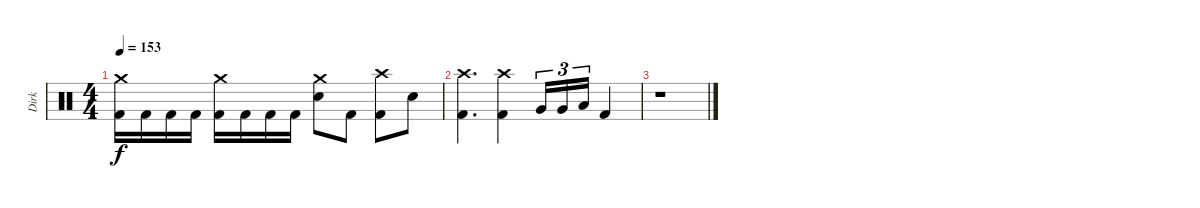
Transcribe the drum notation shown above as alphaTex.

\track ("Dirk" "Dirk") {instrument percussion}
\staff {score}
\articulation defaults
\ts (4 4)
\tempo 153
\clef neutral
\ks c
("Crash medium (hit)" "Kick (hit) 2").16{dy f} "Kick (hit) 2".16 "Kick (hit) 2".16 "Kick (hit) 2".16 ("Crash medium (hit)" "Kick (hit) 2").16 "Kick (hit) 2".16 "Kick (hit) 2".16 "Kick (hit) 2".16 ("Crash medium (hit)" "Electric Snare (hit)").8 "Kick (hit) 2".8 ("Crash high (hit)" "Kick (hit) 2").8 "Electric Snare (hit)".8 |
("Crash high (hit)" "Kick (hit) 2").4{d} ("Crash high (hit)" "Kick (hit) 2").4 "Very Low Tom (hit)".16{tu (3 2)} "Very Low Tom (hit)".16{tu (3 2)} "Low Floor Tom (hit)".16{tu (3 2)} "Kick (hit) 2".4 |
r.1
